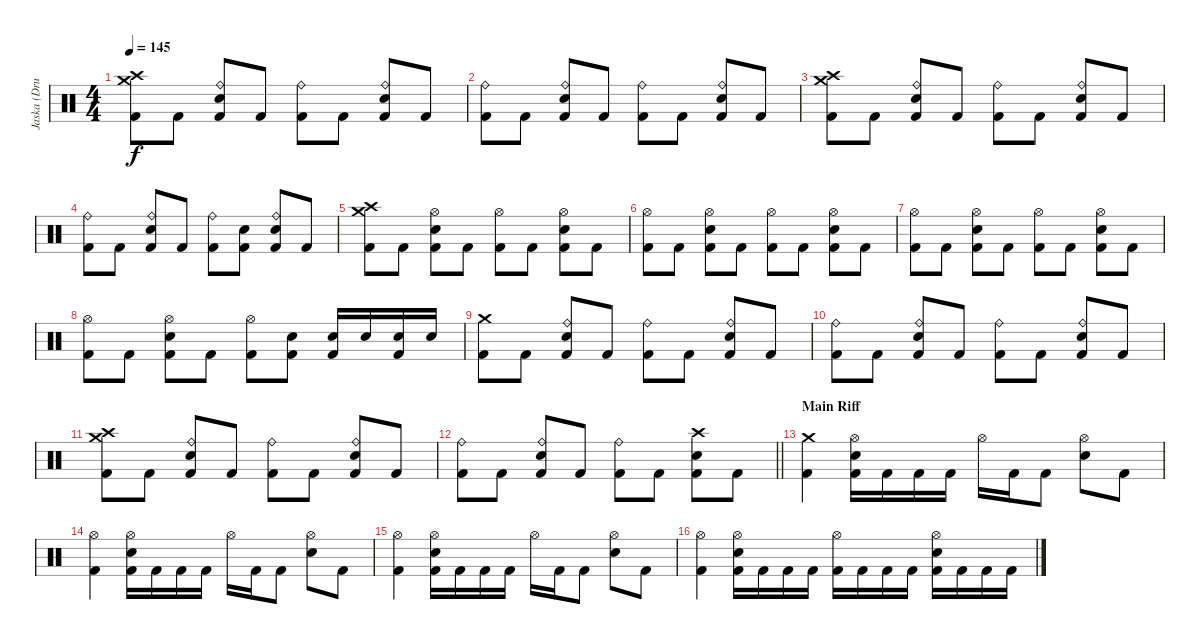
\track ("Jaska (Drums)" "Jaska (Dru") {instrument percussion}
\staff {score}
\articulation defaults
\ts (4 4)
\tempo 145
\clef neutral
\ks c
("Crash medium (hit)" "Crash high (hit)" "Kick (hit) 2").8{dy f} "Kick (hit) 2".8 ("Ride (bell)" "Electric Snare (hit)" "Kick (hit) 2").8 "Kick (hit) 2".8 ("Ride (bell)" "Kick (hit) 2").8 "Kick (hit) 2".8 ("Ride (bell)" "Electric Snare (hit)" "Kick (hit) 2").8 "Kick (hit) 2".8 |
("Ride (bell)" "Kick (hit) 2").8 "Kick (hit) 2".8 ("Ride (bell)" "Electric Snare (hit)" "Kick (hit) 2").8 "Kick (hit) 2".8 ("Ride (bell)" "Kick (hit) 2").8 "Kick (hit) 2".8 ("Ride (bell)" "Electric Snare (hit)" "Kick (hit) 2").8 "Kick (hit) 2".8 |
("Crash medium (hit)" "Crash high (hit)" "Kick (hit) 2").8 "Kick (hit) 2".8 ("Ride (bell)" "Electric Snare (hit)" "Kick (hit) 2").8 "Kick (hit) 2".8 ("Ride (bell)" "Kick (hit) 2").8 "Kick (hit) 2".8 ("Ride (bell)" "Electric Snare (hit)" "Kick (hit) 2").8 "Kick (hit) 2".8 |
("Ride (bell)" "Kick (hit) 2").8 "Kick (hit) 2".8 ("Ride (bell)" "Electric Snare (hit)" "Kick (hit) 2").8 "Kick (hit) 2".8 ("Ride (bell)" "Kick (hit) 2").8 ("Electric Snare (hit)" "Kick (hit) 2").8 ("Ride (bell)" "Electric Snare (hit)" "Kick (hit) 2").8 "Kick (hit) 2".8 |
("Crash medium (hit)" "Crash high (hit)" "Kick (hit) 2").8 "Kick (hit) 2".8 ("Hi-Hat (open)" "Electric Snare (hit)" "Kick (hit) 2").8 "Kick (hit) 2".8 ("Hi-Hat (open)" "Kick (hit) 2").8 "Kick (hit) 2".8 ("Hi-Hat (open)" "Electric Snare (hit)" "Kick (hit) 2").8 "Kick (hit) 2".8 |
("Hi-Hat (open)" "Kick (hit) 2").8 "Kick (hit) 2".8 ("Hi-Hat (open)" "Electric Snare (hit)" "Kick (hit) 2").8 "Kick (hit) 2".8 ("Hi-Hat (open)" "Kick (hit) 2").8 "Kick (hit) 2".8 ("Hi-Hat (open)" "Electric Snare (hit)" "Kick (hit) 2").8 "Kick (hit) 2".8 |
("Hi-Hat (open)" "Kick (hit) 2").8 "Kick (hit) 2".8 ("Hi-Hat (open)" "Electric Snare (hit)" "Kick (hit) 2").8 "Kick (hit) 2".8 ("Hi-Hat (open)" "Kick (hit) 2").8 "Kick (hit) 2".8 ("Hi-Hat (open)" "Electric Snare (hit)" "Kick (hit) 2").8 "Kick (hit) 2".8 |
("Hi-Hat (open)" "Kick (hit) 2").8 "Kick (hit) 2".8 ("Hi-Hat (open)" "Electric Snare (hit)" "Kick (hit) 2").8 "Kick (hit) 2".8 ("Hi-Hat (open)" "Kick (hit) 2").8 ("Electric Snare (hit)" "Kick (hit) 2").8 ("Electric Snare (hit)" "Kick (hit) 2").16 "Electric Snare (hit)".16 ("Electric Snare (hit)" "Kick (hit) 2").16 "Electric Snare (hit)".16 |
("Crash medium (hit)" "Kick (hit) 2").8 "Kick (hit) 2".8 ("Ride (bell)" "Electric Snare (hit)" "Kick (hit) 2").8 "Kick (hit) 2".8 ("Ride (bell)" "Kick (hit) 2").8 "Kick (hit) 2".8 ("Ride (bell)" "Electric Snare (hit)" "Kick (hit) 2").8 "Kick (hit) 2".8 |
("Ride (bell)" "Kick (hit) 2").8 "Kick (hit) 2".8 ("Ride (bell)" "Electric Snare (hit)" "Kick (hit) 2").8 "Kick (hit) 2".8 ("Ride (bell)" "Kick (hit) 2").8 "Kick (hit) 2".8 ("Ride (bell)" "Electric Snare (hit)" "Kick (hit) 2").8 "Kick (hit) 2".8 |
("Crash medium (hit)" "Crash high (hit)" "Kick (hit) 2").8 "Kick (hit) 2".8 ("Ride (bell)" "Electric Snare (hit)" "Kick (hit) 2").8 "Kick (hit) 2".8 ("Ride (bell)" "Kick (hit) 2").8 "Kick (hit) 2".8 ("Ride (bell)" "Electric Snare (hit)" "Kick (hit) 2").8 "Kick (hit) 2".8 |
\barLineRight lightlight
("Ride (bell)" "Kick (hit) 2").8 "Kick (hit) 2".8 ("Ride (bell)" "Electric Snare (hit)" "Kick (hit) 2").8 "Kick (hit) 2".8 ("Ride (bell)" "Kick (hit) 2").8 "Kick (hit) 2".8 ("Crash high (hit)" "Electric Snare (hit)" "Kick (hit) 2").8 "Kick (hit) 2".8 |
\section ("" "Main Riff")
("Crash medium (hit)" "Kick (hit) 2").4{volume 16 balance 8} ("Hi-Hat (open)" "Electric Snare (hit)" "Kick (hit) 2").16 "Kick (hit) 2".16 "Kick (hit) 2".16 "Kick (hit) 2".16 "Hi-Hat (open)".16 "Kick (hit) 2".16 "Kick (hit) 2".8 ("Hi-Hat (open)" "Electric Snare (hit)").8 "Kick (hit) 2".8 |
("Hi-Hat (open)" "Kick (hit) 2").4 ("Hi-Hat (open)" "Electric Snare (hit)" "Kick (hit) 2").16 "Kick (hit) 2".16 "Kick (hit) 2".16 "Kick (hit) 2".16 "Hi-Hat (open)".16 "Kick (hit) 2".16 "Kick (hit) 2".8 ("Hi-Hat (open)" "Electric Snare (hit)").8 "Kick (hit) 2".8 |
("Hi-Hat (open)" "Kick (hit) 2").4 ("Hi-Hat (open)" "Electric Snare (hit)" "Kick (hit) 2").16 "Kick (hit) 2".16 "Kick (hit) 2".16 "Kick (hit) 2".16 "Hi-Hat (open)".16 "Kick (hit) 2".16 "Kick (hit) 2".8 ("Hi-Hat (open)" "Electric Snare (hit)").8 "Kick (hit) 2".8 |
("Hi-Hat (open)" "Kick (hit) 2").4 ("Hi-Hat (open)" "Electric Snare (hit)" "Kick (hit) 2").16 "Kick (hit) 2".16 "Kick (hit) 2".16 "Kick (hit) 2".16 ("Hi-Hat (open)" "Kick (hit) 2").16 "Kick (hit) 2".16 "Kick (hit) 2".16 "Kick (hit) 2".16 ("Hi-Hat (open)" "Electric Snare (hit)" "Kick (hit) 2").16 "Kick (hit) 2".16 "Kick (hit) 2".16 "Kick (hit) 2".16
